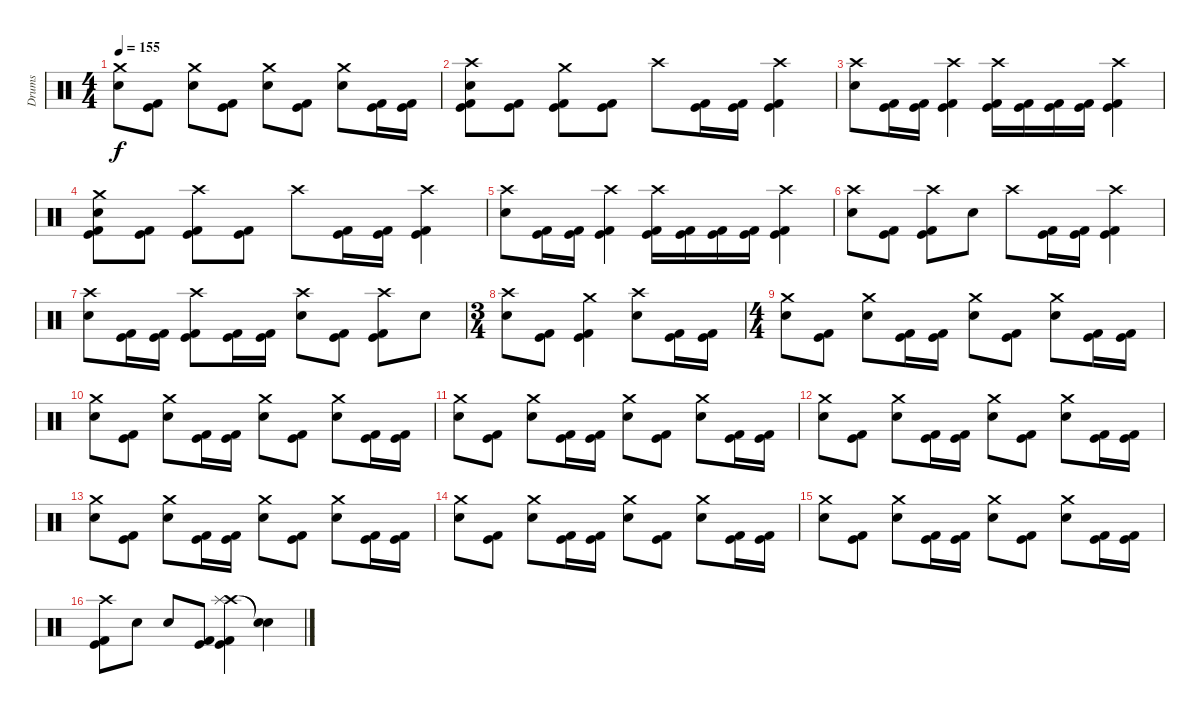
\track ("Drums" "Drums") {instrument percussion}
\staff {score}
\articulation defaults
\ts (4 4)
\tempo 155
\clef neutral
\ks c
("Crash medium (hit)" "Electric Snare (hit)").8{dy f} ("Kick (hit)" "Kick (hit) 2").8 ("Crash medium (hit)" "Electric Snare (hit)").8 ("Kick (hit)" "Kick (hit) 2").8 ("Crash medium (hit)" "Electric Snare (hit)").8 ("Kick (hit)" "Kick (hit) 2").8 ("Crash medium (hit)" "Electric Snare (hit)").8 ("Kick (hit)" "Kick (hit) 2").16 ("Kick (hit)" "Kick (hit) 2").16 |
("Crash high (hit)" "Electric Snare (hit)" "Kick (hit)" "Kick (hit) 2").8 ("Kick (hit)" "Kick (hit) 2").8 ("Crash medium (hit)" "Kick (hit)" "Kick (hit) 2").8 ("Kick (hit)" "Kick (hit) 2").8 "Crash high (hit)".8 ("Kick (hit)" "Kick (hit) 2").16 ("Kick (hit)" "Kick (hit) 2").16 ("Crash high (hit)" "Kick (hit)" "Kick (hit) 2").4 |
("Crash high (hit)" "Electric Snare (hit)").8 ("Kick (hit)" "Kick (hit) 2").16 ("Kick (hit)" "Kick (hit) 2").16 ("Crash high (hit)" "Kick (hit)" "Kick (hit) 2").4 ("Crash high (hit)" "Kick (hit)" "Kick (hit) 2").16 ("Kick (hit)" "Kick (hit) 2").16 ("Kick (hit)" "Kick (hit) 2").16 ("Kick (hit)" "Kick (hit) 2").16 ("Crash high (hit)" "Kick (hit)" "Kick (hit) 2").4 |
("Crash medium (hit)" "Electric Snare (hit)" "Kick (hit)" "Kick (hit) 2").8 ("Kick (hit)" "Kick (hit) 2").8 ("Crash high (hit)" "Kick (hit)" "Kick (hit) 2").8 ("Kick (hit)" "Kick (hit) 2").8 "Crash high (hit)".8 ("Kick (hit)" "Kick (hit) 2").16 ("Kick (hit)" "Kick (hit) 2").16 ("Crash high (hit)" "Kick (hit)" "Kick (hit) 2").4 |
("Crash high (hit)" "Electric Snare (hit)").8 ("Kick (hit)" "Kick (hit) 2").16 ("Kick (hit)" "Kick (hit) 2").16 ("Crash high (hit)" "Kick (hit)" "Kick (hit) 2").4 ("Crash high (hit)" "Kick (hit)" "Kick (hit) 2").16 ("Kick (hit)" "Kick (hit) 2").16 ("Kick (hit)" "Kick (hit) 2").16 ("Kick (hit)" "Kick (hit) 2").16 ("Crash high (hit)" "Kick (hit)" "Kick (hit) 2").4 |
("Crash high (hit)" "Electric Snare (hit)").8 ("Kick (hit)" "Kick (hit) 2").8 ("Crash high (hit)" "Kick (hit)" "Kick (hit) 2").8 "Electric Snare (hit)".8 "Crash high (hit)".8 ("Kick (hit)" "Kick (hit) 2").16 ("Kick (hit)" "Kick (hit) 2").16 ("Crash high (hit)" "Kick (hit)" "Kick (hit) 2").4 |
("Crash high (hit)" "Electric Snare (hit)").8 ("Kick (hit)" "Kick (hit) 2").16 ("Kick (hit)" "Kick (hit) 2").16 ("Crash high (hit)" "Kick (hit)" "Kick (hit) 2").8 ("Kick (hit)" "Kick (hit) 2").16 ("Kick (hit)" "Kick (hit) 2").16 ("Crash high (hit)" "Electric Snare (hit)").8 ("Kick (hit)" "Kick (hit) 2").8 ("Crash high (hit)" "Kick (hit)" "Kick (hit) 2").8 "Electric Snare (hit)".8 |
\ts (3 4)
("Crash high (hit)" "Electric Snare (hit)").8 ("Kick (hit)" "Kick (hit) 2").8 ("Crash medium (hit)" "Kick (hit)" "Kick (hit) 2").4 ("Crash high (hit)" "Electric Snare (hit)").8 ("Kick (hit)" "Kick (hit) 2").16 ("Kick (hit)" "Kick (hit) 2").16 |
\ts (4 4)
("Crash medium (hit)" "Electric Snare (hit)").8 ("Kick (hit)" "Kick (hit) 2").8 ("Crash medium (hit)" "Electric Snare (hit)").8 ("Kick (hit)" "Kick (hit) 2").16 ("Kick (hit)" "Kick (hit) 2").16 ("Crash medium (hit)" "Electric Snare (hit)").8 ("Kick (hit)" "Kick (hit) 2").8 ("Crash medium (hit)" "Electric Snare (hit)").8 ("Kick (hit)" "Kick (hit) 2").16 ("Kick (hit)" "Kick (hit) 2").16 |
("Crash medium (hit)" "Electric Snare (hit)").8 ("Kick (hit)" "Kick (hit) 2").8 ("Crash medium (hit)" "Electric Snare (hit)").8 ("Kick (hit)" "Kick (hit) 2").16 ("Kick (hit)" "Kick (hit) 2").16 ("Crash medium (hit)" "Electric Snare (hit)").8 ("Kick (hit)" "Kick (hit) 2").8 ("Crash medium (hit)" "Electric Snare (hit)").8 ("Kick (hit)" "Kick (hit) 2").16 ("Kick (hit)" "Kick (hit) 2").16 |
("Crash medium (hit)" "Electric Snare (hit)").8 ("Kick (hit)" "Kick (hit) 2").8 ("Crash medium (hit)" "Electric Snare (hit)").8 ("Kick (hit)" "Kick (hit) 2").16 ("Kick (hit)" "Kick (hit) 2").16 ("Crash medium (hit)" "Electric Snare (hit)").8 ("Kick (hit)" "Kick (hit) 2").8 ("Crash medium (hit)" "Electric Snare (hit)").8 ("Kick (hit)" "Kick (hit) 2").16 ("Kick (hit)" "Kick (hit) 2").16 |
("Crash medium (hit)" "Electric Snare (hit)").8 ("Kick (hit)" "Kick (hit) 2").8 ("Crash medium (hit)" "Electric Snare (hit)").8 ("Kick (hit)" "Kick (hit) 2").16 ("Kick (hit)" "Kick (hit) 2").16 ("Crash medium (hit)" "Electric Snare (hit)").8 ("Kick (hit)" "Kick (hit) 2").8 ("Crash medium (hit)" "Electric Snare (hit)").8 ("Kick (hit)" "Kick (hit) 2").16 ("Kick (hit)" "Kick (hit) 2").16 |
("Crash medium (hit)" "Electric Snare (hit)").8 ("Kick (hit)" "Kick (hit) 2").8 ("Crash medium (hit)" "Electric Snare (hit)").8 ("Kick (hit)" "Kick (hit) 2").16 ("Kick (hit)" "Kick (hit) 2").16 ("Crash medium (hit)" "Electric Snare (hit)").8 ("Kick (hit)" "Kick (hit) 2").8 ("Crash medium (hit)" "Electric Snare (hit)").8 ("Kick (hit)" "Kick (hit) 2").16 ("Kick (hit)" "Kick (hit) 2").16 |
("Crash medium (hit)" "Electric Snare (hit)").8 ("Kick (hit)" "Kick (hit) 2").8 ("Crash medium (hit)" "Electric Snare (hit)").8 ("Kick (hit)" "Kick (hit) 2").16 ("Kick (hit)" "Kick (hit) 2").16 ("Crash medium (hit)" "Electric Snare (hit)").8 ("Kick (hit)" "Kick (hit) 2").8 ("Crash medium (hit)" "Electric Snare (hit)").8 ("Kick (hit)" "Kick (hit) 2").16 ("Kick (hit)" "Kick (hit) 2").16 |
("Crash medium (hit)" "Electric Snare (hit)").8 ("Kick (hit)" "Kick (hit) 2").8 ("Crash medium (hit)" "Electric Snare (hit)").8 ("Kick (hit)" "Kick (hit) 2").16 ("Kick (hit)" "Kick (hit) 2").16 ("Crash medium (hit)" "Electric Snare (hit)").8 ("Kick (hit)" "Kick (hit) 2").8 ("Crash medium (hit)" "Electric Snare (hit)").8 ("Kick (hit)" "Kick (hit) 2").16 ("Kick (hit)" "Kick (hit) 2").16 |
("Crash high (hit)" "Kick (hit)" "Kick (hit) 2").8 "Electric Snare (hit)".8 "Electric Snare (hit)".8 ("Kick (hit)" "Kick (hit) 2").8 ("Crash high (hit)" "Splash (hit)" "Kick (hit)" "Kick (hit) 2").4 ("Snare (hit)"{t} "Snare (hit)"{t}).4
